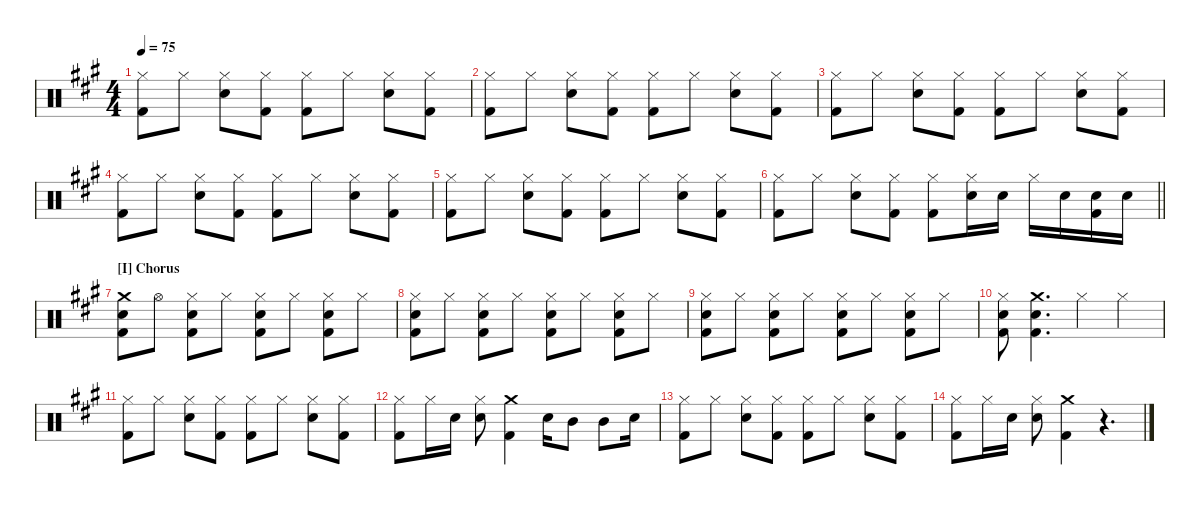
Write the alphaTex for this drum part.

\hideDynamics
\bracketExtendMode nobrackets
\singleTrackTrackNamePolicy hidden
\multiTrackTrackNamePolicy hidden
\otherSystemsTrackNameOrientation horizontal
\track ("Drumkit" "Drums") {instrument percussion}
\staff {score}
\articulation defaults
\ts (4 4)
\tempo 75
\clef neutral
\ks a
("Hi-Hat (closed)"{acc forcenatural} "Kick (hit) 2"{acc forcenatural}).8{dy mf beam Down} "Hi-Hat (closed)"{acc forcenatural}.8{beam Down} ("Hi-Hat (closed)"{acc forcenatural} "Snare (hit) 2"{acc forcenatural}).8{beam Down} ("Hi-Hat (closed)"{acc forcenatural} "Kick (hit) 2"{acc forcenatural}).8{beam Down} ("Hi-Hat (closed)"{acc forcenatural} "Kick (hit) 2"{acc forcenatural}).8{beam Down} "Hi-Hat (closed)"{acc forcenatural}.8{beam Down} ("Hi-Hat (closed)"{acc forcenatural} "Snare (hit) 2"{acc forcenatural}).8{beam Down} ("Hi-Hat (closed)"{acc forcenatural} "Kick (hit) 2"{acc forcenatural}).8{beam Down} |
("Hi-Hat (closed)"{acc forcenatural} "Kick (hit) 2"{acc forcenatural}).8{beam Down} "Hi-Hat (closed)"{acc forcenatural}.8{beam Down} ("Hi-Hat (closed)"{acc forcenatural} "Snare (hit) 2"{acc forcenatural}).8{beam Down} ("Hi-Hat (closed)"{acc forcenatural} "Kick (hit) 2"{acc forcenatural}).8{beam Down} ("Hi-Hat (closed)"{acc forcenatural} "Kick (hit) 2"{acc forcenatural}).8{beam Down} "Hi-Hat (closed)"{acc forcenatural}.8{beam Down} ("Hi-Hat (closed)"{acc forcenatural} "Snare (hit) 2"{acc forcenatural}).8{beam Down} ("Hi-Hat (closed)"{acc forcenatural} "Kick (hit) 2"{acc forcenatural}).8{beam Down} |
("Hi-Hat (closed)"{acc forcenatural} "Kick (hit) 2"{acc forcenatural}).8{beam Down} "Hi-Hat (closed)"{acc forcenatural}.8{beam Down} ("Hi-Hat (closed)"{acc forcenatural} "Snare (hit) 2"{acc forcenatural}).8{beam Down} ("Hi-Hat (closed)"{acc forcenatural} "Kick (hit) 2"{acc forcenatural}).8{beam Down} ("Hi-Hat (closed)"{acc forcenatural} "Kick (hit) 2"{acc forcenatural}).8{beam Down} "Hi-Hat (closed)"{acc forcenatural}.8{beam Down} ("Hi-Hat (closed)"{acc forcenatural} "Snare (hit) 2"{acc forcenatural}).8{beam Down} ("Hi-Hat (closed)"{acc forcenatural} "Kick (hit) 2"{acc forcenatural}).8{beam Down} |
("Hi-Hat (closed)"{acc forcenatural} "Kick (hit) 2"{acc forcenatural}).8{beam Down} "Hi-Hat (closed)"{acc forcenatural}.8{beam Down} ("Hi-Hat (closed)"{acc forcenatural} "Snare (hit) 2"{acc forcenatural}).8{beam Down} ("Hi-Hat (closed)"{acc forcenatural} "Kick (hit) 2"{acc forcenatural}).8{beam Down} ("Hi-Hat (closed)"{acc forcenatural} "Kick (hit) 2"{acc forcenatural}).8{beam Down} "Hi-Hat (closed)"{acc forcenatural}.8{beam Down} ("Hi-Hat (closed)"{acc forcenatural} "Snare (hit) 2"{acc forcenatural}).8{beam Down} ("Hi-Hat (closed)"{acc forcenatural} "Kick (hit) 2"{acc forcenatural}).8{beam Down} |
("Hi-Hat (closed)"{acc forcenatural} "Kick (hit) 2"{acc forcenatural}).8{beam Down} "Hi-Hat (closed)"{acc forcenatural}.8{beam Down} ("Hi-Hat (closed)"{acc forcenatural} "Snare (hit) 2"{acc forcenatural}).8{beam Down} ("Hi-Hat (closed)"{acc forcenatural} "Kick (hit) 2"{acc forcenatural}).8{beam Down} ("Hi-Hat (closed)"{acc forcenatural} "Kick (hit) 2"{acc forcenatural}).8{beam Down} "Hi-Hat (closed)"{acc forcenatural}.8{beam Down} ("Hi-Hat (closed)"{acc forcenatural} "Snare (hit) 2"{acc forcenatural}).8{beam Down} ("Hi-Hat (closed)"{acc forcenatural} "Kick (hit) 2"{acc forcenatural}).8{beam Down} |
\barLineRight lightlight
("Kick (hit) 2"{acc forcenatural} "Hi-Hat (closed)"{acc forcenatural}).8{beam Down} "Hi-Hat (closed)"{acc forcenatural}.8{beam Down} ("Snare (hit) 2"{acc forcenatural} "Hi-Hat (closed)"{acc forcenatural}).8{beam Down} ("Kick (hit) 2"{acc forcenatural} "Hi-Hat (closed)"{acc forcenatural}).8{beam Down} ("Kick (hit) 2"{acc forcenatural} "Hi-Hat (closed)"{acc forcenatural}).8{beam Down} ("Snare (hit) 2"{acc forcenatural} "Hi-Hat (closed)"{acc forcenatural}).16{beam Down} "Snare (hit) 2"{acc forcenatural}.16{beam Down} "Hi-Hat (closed)"{acc forcenatural}.16{beam Down} "Snare (hit) 2"{acc forcenatural}.16{beam Down} ("Snare (hit) 2"{acc forcenatural} "Kick (hit) 2"{acc forcenatural}).16{beam Down} "Snare (hit) 2"{acc forcenatural}.16{beam Down} |
\section ("I" "Chorus")
("Snare (hit) 2"{acc forcenatural} "Crash medium (hit)"{acc forcenatural} "Kick (hit) 2"{acc forcenatural}).8{beam Down} "Hi-Hat (open)"{acc forcenatural}.8{beam Down} ("Kick (hit) 2"{acc forcenatural} "Hi-Hat (closed)"{acc forcenatural} "Snare (hit) 2"{acc forcenatural}).8{beam Down} "Hi-Hat (closed)"{acc forcenatural}.8{beam Down} ("Kick (hit) 2"{acc forcenatural} "Snare (hit) 2"{acc forcenatural} "Hi-Hat (closed)"{acc forcenatural}).8{beam Down} "Hi-Hat (closed)"{acc forcenatural}.8{beam Down} ("Kick (hit) 2"{acc forcenatural} "Snare (hit) 2"{acc forcenatural} "Hi-Hat (closed)"{acc forcenatural}).8{beam Down} "Hi-Hat (closed)"{acc forcenatural}.8{beam Down} |
("Hi-Hat (closed)"{acc forcenatural} "Snare (hit) 2"{acc forcenatural} "Kick (hit) 2"{acc forcenatural}).8{beam Down} "Hi-Hat (closed)"{acc forcenatural}.8{beam Down} ("Kick (hit) 2"{acc forcenatural} "Hi-Hat (closed)"{acc forcenatural} "Snare (hit) 2"{acc forcenatural}).8{beam Down} "Hi-Hat (closed)"{acc forcenatural}.8{beam Down} ("Kick (hit) 2"{acc forcenatural} "Snare (hit) 2"{acc forcenatural} "Hi-Hat (closed)"{acc forcenatural}).8{beam Down} "Hi-Hat (closed)"{acc forcenatural}.8{beam Down} ("Kick (hit) 2"{acc forcenatural} "Snare (hit) 2"{acc forcenatural} "Hi-Hat (closed)"{acc forcenatural}).8{beam Down} "Hi-Hat (closed)"{acc forcenatural}.8{beam Down} |
("Hi-Hat (closed)"{acc forcenatural} "Snare (hit) 2"{acc forcenatural} "Kick (hit) 2"{acc forcenatural}).8{beam Down} "Hi-Hat (closed)"{acc forcenatural}.8{beam Down} ("Kick (hit) 2"{acc forcenatural} "Hi-Hat (closed)"{acc forcenatural} "Snare (hit) 2"{acc forcenatural}).8{beam Down} "Hi-Hat (closed)"{acc forcenatural}.8{beam Down} ("Kick (hit) 2"{acc forcenatural} "Snare (hit) 2"{acc forcenatural} "Hi-Hat (closed)"{acc forcenatural}).8{beam Down} "Hi-Hat (closed)"{acc forcenatural}.8{beam Down} ("Kick (hit) 2"{acc forcenatural} "Snare (hit) 2"{acc forcenatural} "Hi-Hat (closed)"{acc forcenatural}).8{beam Down} "Hi-Hat (closed)"{acc forcenatural}.8{beam Down} |
("Hi-Hat (closed)"{acc forcenatural} "Snare (hit) 2"{acc forcenatural} "Kick (hit) 2"{acc forcenatural}).8{beam Down} ("Snare (hit) 2"{acc forcenatural} "Kick (hit) 2"{acc forcenatural} "Crash medium (hit)"{acc forcenatural}).4{d beam Down} "Hi-Hat (closed)"{acc forcenatural}.4{beam Down} "Hi-Hat (closed)"{acc forcenatural}.4{beam Down} |
("Hi-Hat (closed)"{acc forcenatural} "Kick (hit) 2"{acc forcenatural}).8{beam Down} "Hi-Hat (closed)"{acc forcenatural}.8{beam Down} ("Hi-Hat (closed)"{acc forcenatural} "Snare (hit) 2"{acc forcenatural}).8{beam Down} ("Hi-Hat (closed)"{acc forcenatural} "Kick (hit) 2"{acc forcenatural}).8{beam Down} ("Hi-Hat (closed)"{acc forcenatural} "Kick (hit) 2"{acc forcenatural}).8{beam Down} "Hi-Hat (closed)"{acc forcenatural}.8{beam Down} ("Hi-Hat (closed)"{acc forcenatural} "Snare (hit) 2"{acc forcenatural}).8{beam Down} ("Hi-Hat (closed)"{acc forcenatural} "Kick (hit) 2"{acc forcenatural}).8{beam Down} |
("Hi-Hat (closed)"{acc forcenatural} "Kick (hit) 2"{acc forcenatural}).8{beam Down} "Hi-Hat (closed)"{acc forcenatural}.16{beam Down} "Snare (hit) 2"{acc forcenatural}.16{beam Down} ("Hi-Hat (closed)"{acc forcenatural} "Snare (hit) 2"{acc forcenatural}).8{beam Down} ("Crash medium (hit)"{acc forcenatural} "Kick (hit) 2"{acc forcenatural}).4{beam Down} "Snare (hit) 2"{acc forcenatural}.16{beam Down} "Mid Tom (hit)"{acc forcenatural}.8{beam Down} "Mid Tom (hit)"{acc forcenatural}.8{beam Down} "Snare (hit) 2"{acc forcenatural}.16{beam Down} |
("Hi-Hat (closed)"{acc forcenatural} "Kick (hit) 2"{acc forcenatural}).8{beam Down} "Hi-Hat (closed)"{acc forcenatural}.8{beam Down} ("Hi-Hat (closed)"{acc forcenatural} "Snare (hit) 2"{acc forcenatural}).8{beam Down} ("Hi-Hat (closed)"{acc forcenatural} "Kick (hit) 2"{acc forcenatural}).8{beam Down} ("Hi-Hat (closed)"{acc forcenatural} "Kick (hit) 2"{acc forcenatural}).8{beam Down} "Hi-Hat (closed)"{acc forcenatural}.8{beam Down} ("Hi-Hat (closed)"{acc forcenatural} "Snare (hit) 2"{acc forcenatural}).8{beam Down} ("Hi-Hat (closed)"{acc forcenatural} "Kick (hit) 2"{acc forcenatural}).8{beam Down} |
("Hi-Hat (closed)"{acc forcenatural} "Kick (hit) 2"{acc forcenatural}).8{beam Down} "Hi-Hat (closed)"{acc forcenatural}.16{beam Down} "Snare (hit) 2"{acc forcenatural}.16{beam Down} ("Hi-Hat (closed)"{acc forcenatural} "Snare (hit) 2"{acc forcenatural}).8{beam Down} ("Crash medium (hit)"{acc forcenatural} "Kick (hit) 2"{acc forcenatural}).4{beam Down} r.4{d beam Down}
